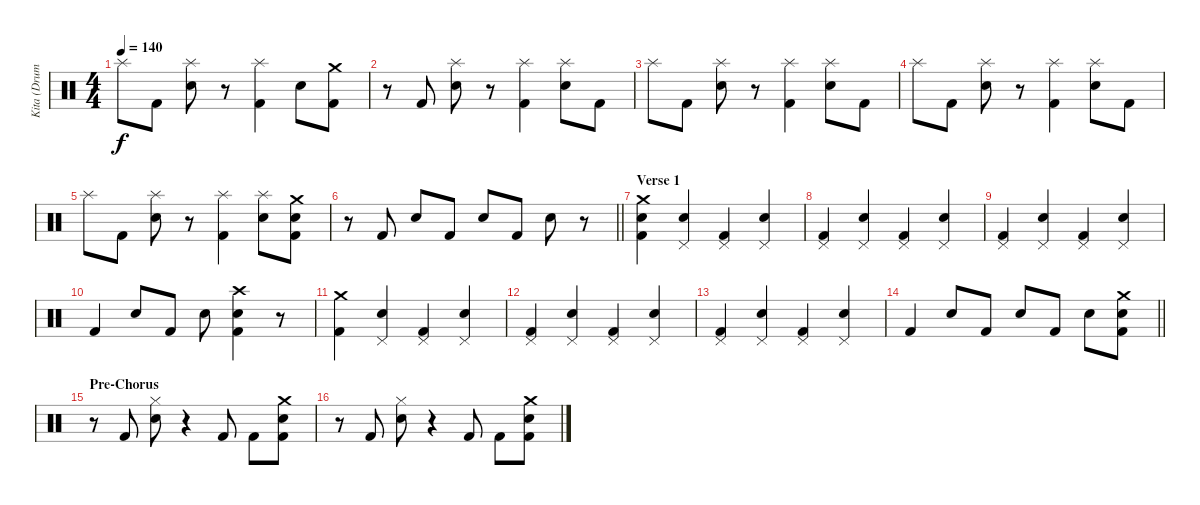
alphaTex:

\track ("Kita (Drums)" "Kita (Drum") {instrument percussion}
\staff {score}
\articulation defaults
\ts (4 4)
\tempo 140
\clef neutral
\ks c "Splash (hit)".8{dy f} "Kick (hit) 2".8
("Splash (hit)" "Snare (hit) 2").8 r.8 ("Splash (hit)" "Kick (hit) 2").4 "Snare (hit) 2".8 ("Crash medium (hit)" "Kick (hit) 2").8 |
r.8 "Kick (hit) 2".8 ("Splash (hit)" "Snare (hit) 2").8 r.8 ("Splash (hit)" "Kick (hit) 2").4 ("Splash (hit)" "Snare (hit) 2").8 "Kick (hit) 2".8 |
"Splash (hit)".8 "Kick (hit) 2".8 ("Splash (hit)" "Snare (hit) 2").8 r.8 ("Splash (hit)" "Kick (hit) 2").4 ("Splash (hit)" "Snare (hit) 2").8 "Kick (hit) 2".8 |
"Splash (hit)".8 "Kick (hit) 2".8 ("Splash (hit)" "Snare (hit) 2").8 r.8 ("Splash (hit)" "Kick (hit) 2").4 ("Splash (hit)" "Snare (hit) 2").8 "Kick (hit) 2".8 |
"Splash (hit)".8 "Kick (hit) 2".8 ("Splash (hit)" "Snare (hit) 2").8 r.8 ("Splash (hit)" "Kick (hit) 2").4 ("Splash (hit)" "Snare (hit) 2").8 ("Crash medium (hit)" "Snare (hit) 2" "Kick (hit) 2").8 |
\barLineRight lightlight
r.8 "Kick (hit) 2".8 "Snare (hit) 2".8 "Kick (hit) 2".8 "Snare (hit) 2".8 "Kick (hit) 2".8 "Snare (hit) 2".8 r.8 |
\section ("" "Verse 1")
("Crash medium (hit)" "Snare (hit) 2" "Kick (hit) 2").4 ("Pedal Hi-Hat (hit)" "Snare (hit) 2").4 ("Pedal Hi-Hat (hit)" "Kick (hit) 2").4 ("Pedal Hi-Hat (hit)" "Snare (hit) 2").4 |
("Pedal Hi-Hat (hit)" "Kick (hit) 2").4 ("Pedal Hi-Hat (hit)" "Snare (hit) 2").4 ("Pedal Hi-Hat (hit)" "Kick (hit) 2").4 ("Pedal Hi-Hat (hit)" "Snare (hit) 2").4 |
("Pedal Hi-Hat (hit)" "Kick (hit) 2").4 ("Pedal Hi-Hat (hit)" "Snare (hit) 2").4 ("Pedal Hi-Hat (hit)" "Kick (hit) 2").4 ("Pedal Hi-Hat (hit)" "Snare (hit) 2").4 |
"Kick (hit) 2".4 "Snare (hit) 2".8 "Kick (hit) 2".8 "Snare (hit) 2".8 ("Crash high (hit)" "Snare (hit) 2" "Kick (hit) 2").4 r.8 |
("Crash medium (hit)" "Kick (hit) 2").4 ("Pedal Hi-Hat (hit)" "Snare (hit) 2").4 ("Pedal Hi-Hat (hit)" "Kick (hit) 2").4 ("Pedal Hi-Hat (hit)" "Snare (hit) 2").4 |
("Pedal Hi-Hat (hit)" "Kick (hit) 2").4 ("Pedal Hi-Hat (hit)" "Snare (hit) 2").4 ("Pedal Hi-Hat (hit)" "Kick (hit) 2").4 ("Pedal Hi-Hat (hit)" "Snare (hit) 2").4 |
("Pedal Hi-Hat (hit)" "Kick (hit) 2").4 ("Pedal Hi-Hat (hit)" "Snare (hit) 2").4 ("Pedal Hi-Hat (hit)" "Kick (hit) 2").4 ("Pedal Hi-Hat (hit)" "Snare (hit) 2").4 |
\barLineRight lightlight "Kick (hit) 2".4 "Snare (hit) 2".8 "Kick (hit) 2".8 "Snare (hit) 2".8 "Kick (hit) 2".8 "Snare (hit) 2".8
("Crash medium (hit)" "Snare (hit) 2" "Kick (hit) 2").8 |
\section ("" "Pre-Chorus")
r.8 "Kick (hit) 2".8 ("Hi-Hat (closed)" "Snare (hit) 2").8 r.4 "Kick (hit) 2".8 "Kick (hit) 2".8 ("Crash medium (hit)" "Snare (hit) 2" "Kick (hit) 2").8 |
r.8 "Kick (hit) 2".8 ("Hi-Hat (closed)" "Snare (hit) 2").8 r.4 "Kick (hit) 2".8 "Kick (hit) 2".8 ("Crash medium (hit)" "Snare (hit) 2" "Kick (hit) 2").8
